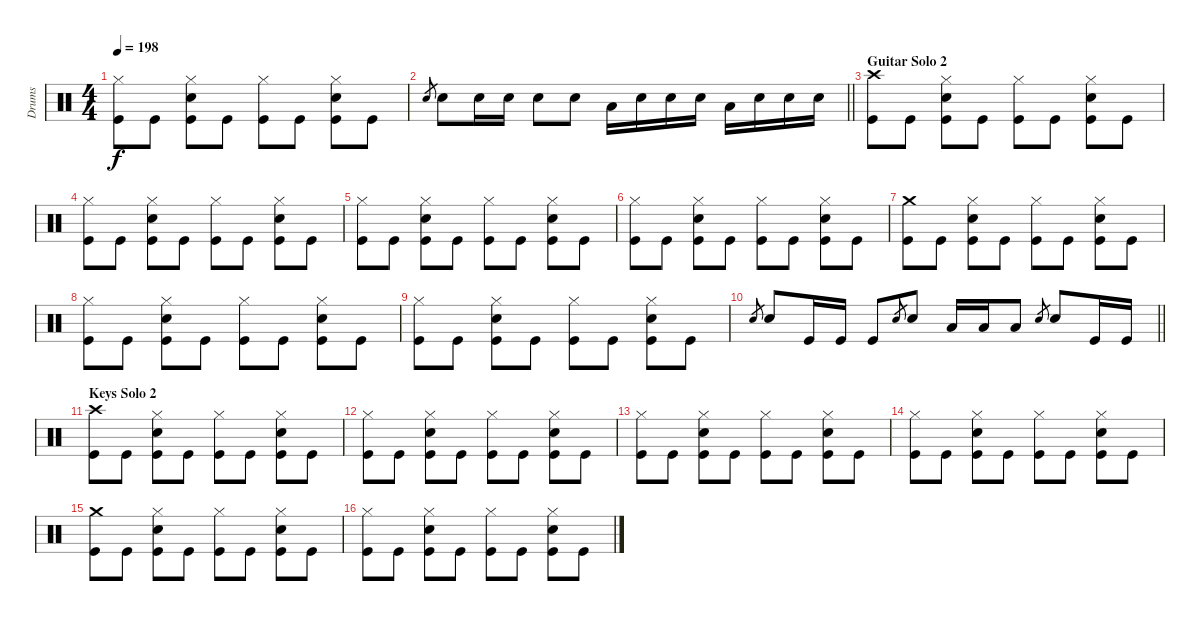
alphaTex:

\track ("Drums" "Drums") {instrument percussion}
\staff {score}
\articulation defaults
\ts (4 4)
\tempo 198
\clef neutral
\ks c
("Hi-Hat (closed)" "Kick (hit)").8{dy f} "Kick (hit)".8 ("Hi-Hat (closed)" "Electric Snare (hit)" "Kick (hit)").8 "Kick (hit)".8 ("Hi-Hat (closed)" "Kick (hit)").8 "Kick (hit)".8 ("Hi-Hat (closed)" "Electric Snare (hit)" "Kick (hit)").8 "Kick (hit)".8 |
\barLineRight lightlight "Electric Snare (hit)".8{gr} "Electric Snare (hit)".8 "Electric Snare (hit)".16 "Electric Snare (hit)".16 "Electric Snare (hit)".8 "Electric Snare (hit)".8 "Low Tom (hit)".16 "Electric Snare (hit)".16 "Electric Snare (hit)".16 "Electric Snare (hit)".16 "Low Tom (hit)".16 "Electric Snare (hit)".16 "Electric Snare (hit)".16 "Electric Snare (hit)".16
|
\section ("" "Guitar Solo 2")
("Crash high (hit)" "Kick (hit)").8 "Kick (hit)".8 ("Hi-Hat (closed)" "Electric Snare (hit)" "Kick (hit)").8 "Kick (hit)".8 ("Hi-Hat (closed)" "Kick (hit)").8 "Kick (hit)".8 ("Hi-Hat (closed)" "Electric Snare (hit)" "Kick (hit)").8 "Kick (hit)".8 |
("Hi-Hat (closed)" "Kick (hit)").8 "Kick (hit)".8 ("Hi-Hat (closed)" "Electric Snare (hit)" "Kick (hit)").8 "Kick (hit)".8 ("Hi-Hat (closed)" "Kick (hit)").8 "Kick (hit)".8 ("Hi-Hat (closed)" "Electric Snare (hit)" "Kick (hit)").8 "Kick (hit)".8 |
("Hi-Hat (closed)" "Kick (hit)").8 "Kick (hit)".8 ("Hi-Hat (closed)" "Electric Snare (hit)" "Kick (hit)").8 "Kick (hit)".8 ("Hi-Hat (closed)" "Kick (hit)").8 "Kick (hit)".8 ("Hi-Hat (closed)" "Electric Snare (hit)" "Kick (hit)").8 "Kick (hit)".8 |
("Hi-Hat (closed)" "Kick (hit)").8 "Kick (hit)".8 ("Hi-Hat (closed)" "Electric Snare (hit)" "Kick (hit)").8 "Kick (hit)".8 ("Hi-Hat (closed)" "Kick (hit)").8 "Kick (hit)".8 ("Hi-Hat (closed)" "Electric Snare (hit)" "Kick (hit)").8 "Kick (hit)".8 |
("Crash medium (hit)" "Kick (hit)").8 "Kick (hit)".8 ("Hi-Hat (closed)" "Electric Snare (hit)" "Kick (hit)").8 "Kick (hit)".8 ("Hi-Hat (closed)" "Kick (hit)").8 "Kick (hit)".8 ("Hi-Hat (closed)" "Electric Snare (hit)" "Kick (hit)").8 "Kick (hit)".8 |
("Hi-Hat (closed)" "Kick (hit)").8 "Kick (hit)".8 ("Hi-Hat (closed)" "Electric Snare (hit)" "Kick (hit)").8 "Kick (hit)".8 ("Hi-Hat (closed)" "Kick (hit)").8 "Kick (hit)".8 ("Hi-Hat (closed)" "Electric Snare (hit)" "Kick (hit)").8 "Kick (hit)".8 |
("Hi-Hat (closed)" "Kick (hit)").8 "Kick (hit)".8 ("Hi-Hat (closed)" "Electric Snare (hit)" "Kick (hit)").8 "Kick (hit)".8 ("Hi-Hat (closed)" "Kick (hit)").8 "Kick (hit)".8 ("Hi-Hat (closed)" "Electric Snare (hit)" "Kick (hit)").8 "Kick (hit)".8 |
\barLineRight lightlight "Electric Snare (hit)".8{gr} "Electric Snare (hit)".8 "Kick (hit)".16 "Kick (hit)".16 "Kick (hit)".8 "Electric Snare (hit)".8{gr} "Electric Snare (hit)".8 "Low Floor Tom (hit)".16 "Low Floor Tom (hit)".16 "Low Floor Tom (hit)".8 "Electric Snare (hit)".8{gr} "Electric Snare (hit)".8 "Kick (hit)".16 "Kick (hit)".16
|
\section ("" "Keys Solo 2")
("Crash high (hit)" "Kick (hit)").8 "Kick (hit)".8 ("Hi-Hat (closed)" "Electric Snare (hit)" "Kick (hit)").8 "Kick (hit)".8 ("Hi-Hat (closed)" "Kick (hit)").8 "Kick (hit)".8 ("Hi-Hat (closed)" "Electric Snare (hit)" "Kick (hit)").8 "Kick (hit)".8 |
("Hi-Hat (closed)" "Kick (hit)").8 "Kick (hit)".8 ("Hi-Hat (closed)" "Electric Snare (hit)" "Kick (hit)").8 "Kick (hit)".8 ("Hi-Hat (closed)" "Kick (hit)").8 "Kick (hit)".8 ("Hi-Hat (closed)" "Electric Snare (hit)" "Kick (hit)").8 "Kick (hit)".8 |
("Hi-Hat (closed)" "Kick (hit)").8 "Kick (hit)".8 ("Hi-Hat (closed)" "Electric Snare (hit)" "Kick (hit)").8 "Kick (hit)".8 ("Hi-Hat (closed)" "Kick (hit)").8 "Kick (hit)".8 ("Hi-Hat (closed)" "Electric Snare (hit)" "Kick (hit)").8 "Kick (hit)".8 |
("Hi-Hat (closed)" "Kick (hit)").8 "Kick (hit)".8 ("Hi-Hat (closed)" "Electric Snare (hit)" "Kick (hit)").8 "Kick (hit)".8 ("Hi-Hat (closed)" "Kick (hit)").8 "Kick (hit)".8 ("Hi-Hat (closed)" "Electric Snare (hit)" "Kick (hit)").8 "Kick (hit)".8 |
("Crash medium (hit)" "Kick (hit)").8 "Kick (hit)".8 ("Hi-Hat (closed)" "Electric Snare (hit)" "Kick (hit)").8 "Kick (hit)".8 ("Hi-Hat (closed)" "Kick (hit)").8 "Kick (hit)".8 ("Hi-Hat (closed)" "Electric Snare (hit)" "Kick (hit)").8 "Kick (hit)".8 |
("Hi-Hat (closed)" "Kick (hit)").8 "Kick (hit)".8 ("Hi-Hat (closed)" "Electric Snare (hit)" "Kick (hit)").8 "Kick (hit)".8 ("Hi-Hat (closed)" "Kick (hit)").8 "Kick (hit)".8 ("Hi-Hat (closed)" "Electric Snare (hit)" "Kick (hit)").8 "Kick (hit)".8
